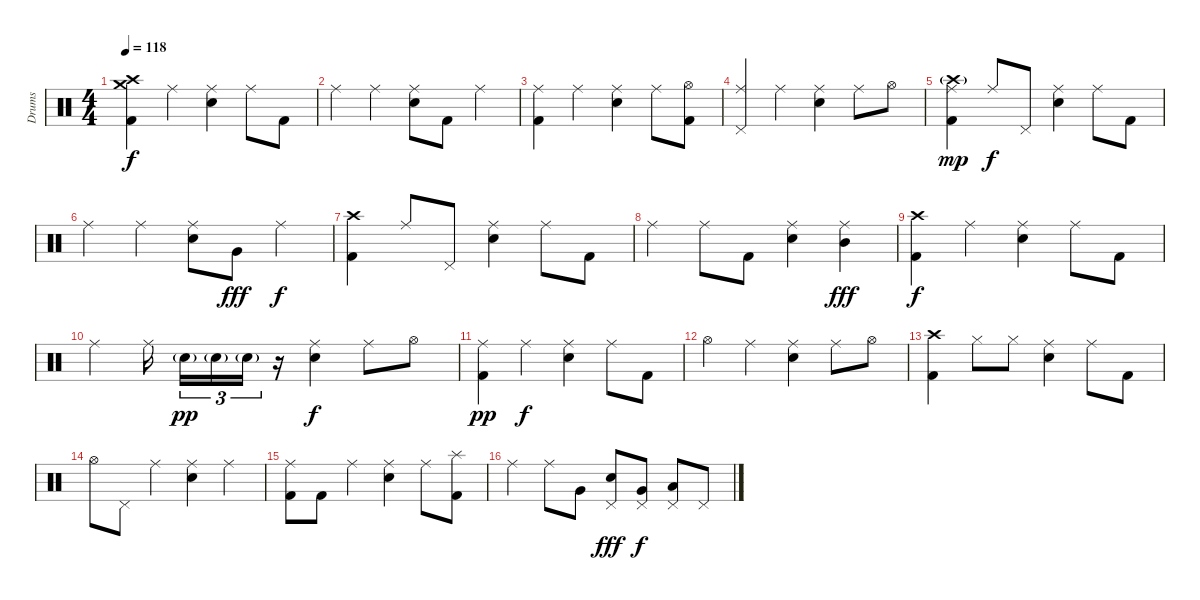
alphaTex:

\track ("Drums" "Drums") {instrument percussion}
\staff {score}
\articulation defaults
\ts (4 4)
\tempo 118
\clef neutral
\ks c
("Crash high (hit)" "Crash medium (hit)" "Kick (hit) 2").4{dy f} "Ride (middle)".4 ("Ride (middle)" "Electric Snare (hit)").4 "Ride (middle)".8 "Kick (hit) 2".8 |
"Ride (middle)".4 "Ride (middle)".4 ("Ride (middle)" "Electric Snare (hit)").8 "Kick (hit) 2".8 "Ride (middle)".4 |
("Ride (middle)" "Kick (hit) 2").4 "Ride (middle)".4 ("Ride (middle)" "Electric Snare (hit)").4 "Ride (middle)".8 ("Hi-Hat (open)" "Kick (hit) 2").8 |
("Ride (middle)" "Pedal Hi-Hat (hit)").4 "Ride (middle)".4 ("Ride (middle)" "Electric Snare (hit)").4 "Ride (middle)".8 "Hi-Hat (open)".8 |
("Crash high (hit)"{g} "Ride (middle)" "Kick (hit) 2").4{dy mp} "Ride (middle)".8{dy f} "Pedal Hi-Hat (hit)".8 ("Ride (middle)" "Electric Snare (hit)").4 "Ride (middle)".8 "Kick (hit) 2".8 |
"Ride (middle)".4 "Ride (middle)".4 ("Ride (middle)" "Electric Snare (hit)").8 "Very Low Tom (hit)".8{dy fff} "Ride (middle)".4{dy f} |
("Crash high (hit)" "Kick (hit) 2").4 "Ride (middle)".8 "Pedal Hi-Hat (hit)".8 ("Ride (middle)" "Electric Snare (hit)").4 "Ride (middle)".8 "Kick (hit) 2".8 |
"Ride (middle)".4 "Ride (middle)".8 "Kick (hit) 2".8 ("Ride (middle)" "Electric Snare (hit)").4 ("Ride (middle)" "Mid Tom (hit)").4{dy fff} |
("Crash high (hit)" "Kick (hit) 2").4{dy f} "Ride (middle)".4 ("Ride (middle)" "Electric Snare (hit)").4 "Ride (middle)".8 "Kick (hit) 2".8 |
"Ride (middle)".4 "Ride (middle)".16{beam splitsecondary} "Electric Snare (hit)"{g}.16{tu (3 2) dy pp} "Electric Snare (hit)"{g}.16{tu (3 2)} "Electric Snare (hit)"{g}.16{tu (3 2)} r.16 ("Ride (middle)" "Electric Snare (hit)").4{dy f} "Ride (middle)".8 "Hi-Hat (open)".8 |
("Ride (middle)" "Kick (hit) 2").4{dy pp} "Ride (middle)".4{dy f} ("Ride (middle)" "Electric Snare (hit)").4 "Ride (middle)".8 "Kick (hit) 2".8 |
"Hi-Hat (open)".4 "Ride (middle)".4 ("Ride (middle)" "Electric Snare (hit)").4 "Ride (middle)".8 "Hi-Hat (open)".8 |
("Crash high (hit)" "Kick (hit) 2").4 "Hi-Hat (closed)".8 "Hi-Hat (closed)".8 ("Ride (middle)" "Electric Snare (hit)").4 "Ride (middle)".8 "Kick (hit) 2".8 |
"Hi-Hat (open)".8 "Pedal Hi-Hat (hit)".8 "Ride (middle)".4 ("Ride (middle)" "Electric Snare (hit)").4 "Ride (middle)".4 |
("Ride (middle)" "Kick (hit) 2").8 "Kick (hit) 2".8 "Ride (middle)".4 ("Ride (middle)" "Electric Snare (hit)").4 "Ride (middle)".8 ("Splash (hit)" "Kick (hit) 2").8 |
"Ride (middle)".4 "Ride (middle)".8 "Very Low Tom (hit)".8 ("Pedal Hi-Hat (hit)" "Electric Snare (hit)").8{dy fff} ("Pedal Hi-Hat (hit)" "Very Low Tom (hit)").8{dy f} ("Pedal Hi-Hat (hit)" "Low Tom (hit)").8 "Pedal Hi-Hat (hit)".8
